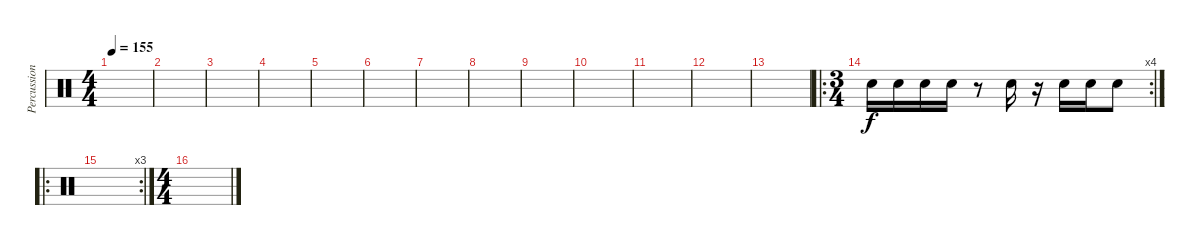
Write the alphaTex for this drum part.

\track ("Percussion" "Percussion") {instrument percussion}
\staff {score}
\articulation defaults
\ts (4 4)
\tempo 155
\clef neutral
\ks c
|
|
|
|
|
|
|
|
|
|
|
|
|
\ro
\rc 4
\ts (3 4)
"Snare (hit) 2".16 "Snare (hit) 2".16 "Snare (hit) 2".16 "Snare (hit) 2".16 r.8 "Snare (hit) 2".16 r.16 "Snare (hit) 2".16 "Snare (hit) 2".16 "Snare (hit) 2".8 |
\ro
\rc 3
|
\ts (4 4)
